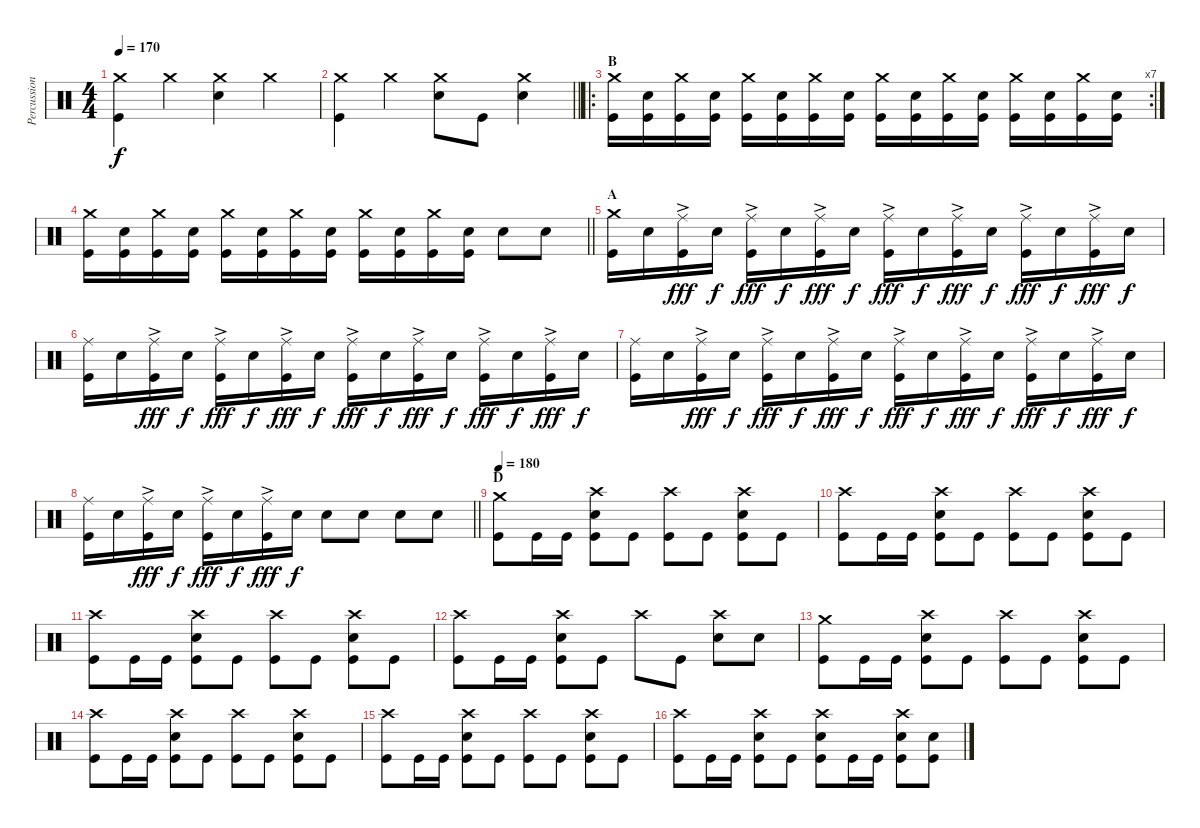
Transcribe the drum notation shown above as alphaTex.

\track ("Percussion" "Percussion") {instrument percussion}
\staff {score}
\articulation defaults
\ts (4 4)
\tempo 170
\clef neutral
\ks c
("Kick (hit)" "Crash medium (hit)").4{dy f} "Crash medium (hit)".4 ("Snare (hit) 2" "Crash medium (hit)").4 "Crash medium (hit)".4 |
\barLineRight lightlight
("Kick (hit)" "Crash medium (hit)").4 "Crash medium (hit)".4 ("Snare (hit) 2" "Crash medium (hit)").8 "Kick (hit)".8 ("Snare (hit) 2" "Crash medium (hit)").4 |
\ro
\rc 7
\section ("" "B")
("Kick (hit)" "Crash medium (hit)").16 ("Kick (hit)" "Snare (hit) 2").16 ("Kick (hit)" "Crash medium (hit)").16 ("Kick (hit)" "Snare (hit) 2").16 ("Kick (hit)" "Crash medium (hit)").16 ("Kick (hit)" "Snare (hit) 2").16 ("Kick (hit)" "Crash medium (hit)").16 ("Kick (hit)" "Snare (hit) 2").16 ("Kick (hit)" "Crash medium (hit)").16 ("Kick (hit)" "Snare (hit) 2").16 ("Kick (hit)" "Crash medium (hit)").16 ("Kick (hit)" "Snare (hit) 2").16 ("Kick (hit)" "Crash medium (hit)").16 ("Kick (hit)" "Snare (hit) 2").16 ("Kick (hit)" "Crash medium (hit)").16 ("Kick (hit)" "Snare (hit) 2").16 |
\barLineRight lightlight
("Kick (hit)" "Crash medium (hit)").16 ("Kick (hit)" "Snare (hit) 2").16 ("Kick (hit)" "Crash medium (hit)").16 ("Kick (hit)" "Snare (hit) 2").16 ("Kick (hit)" "Crash medium (hit)").16 ("Kick (hit)" "Snare (hit) 2").16 ("Kick (hit)" "Crash medium (hit)").16 ("Kick (hit)" "Snare (hit) 2").16 ("Kick (hit)" "Crash medium (hit)").16 ("Kick (hit)" "Snare (hit) 2").16 ("Kick (hit)" "Crash medium (hit)").16 ("Kick (hit)" "Snare (hit) 2").16 "Snare (hit) 2".8 "Snare (hit) 2".8 |
\section ("" "A")
("Kick (hit)" "Crash medium (hit)").16 "Snare (hit) 2".16 ("Kick (hit)" "Ride (middle)"{ac}).16{dy fff} "Snare (hit) 2".16{dy f} ("Kick (hit)" "Ride (middle)"{ac}).16{dy fff} "Snare (hit) 2".16{dy f} ("Kick (hit)" "Ride (middle)"{ac}).16{dy fff} "Snare (hit) 2".16{dy f} ("Kick (hit)" "Ride (middle)"{ac}).16{dy fff} "Snare (hit) 2".16{dy f} ("Kick (hit)" "Ride (middle)"{ac}).16{dy fff} "Snare (hit) 2".16{dy f} ("Kick (hit)" "Ride (middle)"{ac}).16{dy fff} "Snare (hit) 2".16{dy f} ("Kick (hit)" "Ride (middle)"{ac}).16{dy fff} "Snare (hit) 2".16{dy f} |
("Kick (hit)" "Ride (middle)").16 "Snare (hit) 2".16 ("Kick (hit)" "Ride (middle)"{ac}).16{dy fff} "Snare (hit) 2".16{dy f} ("Kick (hit)" "Ride (middle)"{ac}).16{dy fff} "Snare (hit) 2".16{dy f} ("Kick (hit)" "Ride (middle)"{ac}).16{dy fff} "Snare (hit) 2".16{dy f} ("Kick (hit)" "Ride (middle)"{ac}).16{dy fff} "Snare (hit) 2".16{dy f} ("Kick (hit)" "Ride (middle)"{ac}).16{dy fff} "Snare (hit) 2".16{dy f} ("Kick (hit)" "Ride (middle)"{ac}).16{dy fff} "Snare (hit) 2".16{dy f} ("Kick (hit)" "Ride (middle)"{ac}).16{dy fff} "Snare (hit) 2".16{dy f} |
("Kick (hit)" "Ride (middle)").16 "Snare (hit) 2".16 ("Kick (hit)" "Ride (middle)"{ac}).16{dy fff} "Snare (hit) 2".16{dy f} ("Kick (hit)" "Ride (middle)"{ac}).16{dy fff} "Snare (hit) 2".16{dy f} ("Kick (hit)" "Ride (middle)"{ac}).16{dy fff} "Snare (hit) 2".16{dy f} ("Kick (hit)" "Ride (middle)"{ac}).16{dy fff} "Snare (hit) 2".16{dy f} ("Kick (hit)" "Ride (middle)"{ac}).16{dy fff} "Snare (hit) 2".16{dy f} ("Kick (hit)" "Ride (middle)"{ac}).16{dy fff} "Snare (hit) 2".16{dy f} ("Kick (hit)" "Ride (middle)"{ac}).16{dy fff} "Snare (hit) 2".16{dy f} |
\barLineRight lightlight
("Kick (hit)" "Ride (middle)").16 "Snare (hit) 2".16 ("Kick (hit)" "Ride (middle)"{ac}).16{dy fff} "Snare (hit) 2".16{dy f} ("Kick (hit)" "Ride (middle)"{ac}).16{dy fff} "Snare (hit) 2".16{dy f} ("Kick (hit)" "Ride (middle)"{ac}).16{dy fff} "Snare (hit) 2".16{dy f} "Snare (hit) 2".8 "Snare (hit) 2".8 "Snare (hit) 2".8 "Snare (hit) 2".8 |
\section ("" "D")
\tempo 180
("Kick (hit)" "Crash medium (hit)").8 "Kick (hit)".16 "Kick (hit)".16 ("Kick (hit)" "Snare (hit) 2" "Crash high (hit)").8 "Kick (hit)".8 ("Kick (hit)" "Crash high (hit)").8 "Kick (hit)".8 ("Kick (hit)" "Snare (hit) 2" "Crash high (hit)").8 "Kick (hit)".8 |
("Kick (hit)" "Crash high (hit)").8 "Kick (hit)".16 "Kick (hit)".16 ("Kick (hit)" "Snare (hit) 2" "Crash high (hit)").8 "Kick (hit)".8 ("Kick (hit)" "Crash high (hit)").8 "Kick (hit)".8 ("Kick (hit)" "Snare (hit) 2" "Crash high (hit)").8 "Kick (hit)".8 |
("Kick (hit)" "Crash high (hit)").8 "Kick (hit)".16 "Kick (hit)".16 ("Kick (hit)" "Snare (hit) 2" "Crash high (hit)").8 "Kick (hit)".8 ("Kick (hit)" "Crash high (hit)").8 "Kick (hit)".8 ("Kick (hit)" "Snare (hit) 2" "Crash high (hit)").8 "Kick (hit)".8 |
("Kick (hit)" "Crash high (hit)").8 "Kick (hit)".16 "Kick (hit)".16 ("Kick (hit)" "Snare (hit) 2" "Crash high (hit)").8 "Kick (hit)".8 "Crash high (hit)".8 "Kick (hit)".8 ("Snare (hit) 2" "Crash high (hit)").8 "Snare (hit) 2".8 |
("Kick (hit)" "Crash medium (hit)").8 "Kick (hit)".16 "Kick (hit)".16 ("Kick (hit)" "Snare (hit) 2" "Crash high (hit)").8 "Kick (hit)".8 ("Kick (hit)" "Crash high (hit)").8 "Kick (hit)".8 ("Kick (hit)" "Snare (hit) 2" "Crash high (hit)").8 "Kick (hit)".8 |
("Kick (hit)" "Crash high (hit)").8 "Kick (hit)".16 "Kick (hit)".16 ("Kick (hit)" "Snare (hit) 2" "Crash high (hit)").8 "Kick (hit)".8 ("Kick (hit)" "Crash high (hit)").8 "Kick (hit)".8 ("Kick (hit)" "Snare (hit) 2" "Crash high (hit)").8 "Kick (hit)".8 |
("Kick (hit)" "Crash high (hit)").8 "Kick (hit)".16 "Kick (hit)".16 ("Kick (hit)" "Snare (hit) 2" "Crash high (hit)").8 "Kick (hit)".8 ("Kick (hit)" "Crash high (hit)").8 "Kick (hit)".8 ("Kick (hit)" "Snare (hit) 2" "Crash high (hit)").8 "Kick (hit)".8 |
("Kick (hit)" "Crash high (hit)").8 "Kick (hit)".16 "Kick (hit)".16 ("Kick (hit)" "Snare (hit) 2" "Crash high (hit)").8 "Kick (hit)".8 ("Kick (hit)" "Snare (hit) 2" "Crash high (hit)").8 "Kick (hit)".16 "Kick (hit)".16 ("Kick (hit)" "Snare (hit) 2" "Crash high (hit)").8 ("Kick (hit)" "Snare (hit) 2").8
